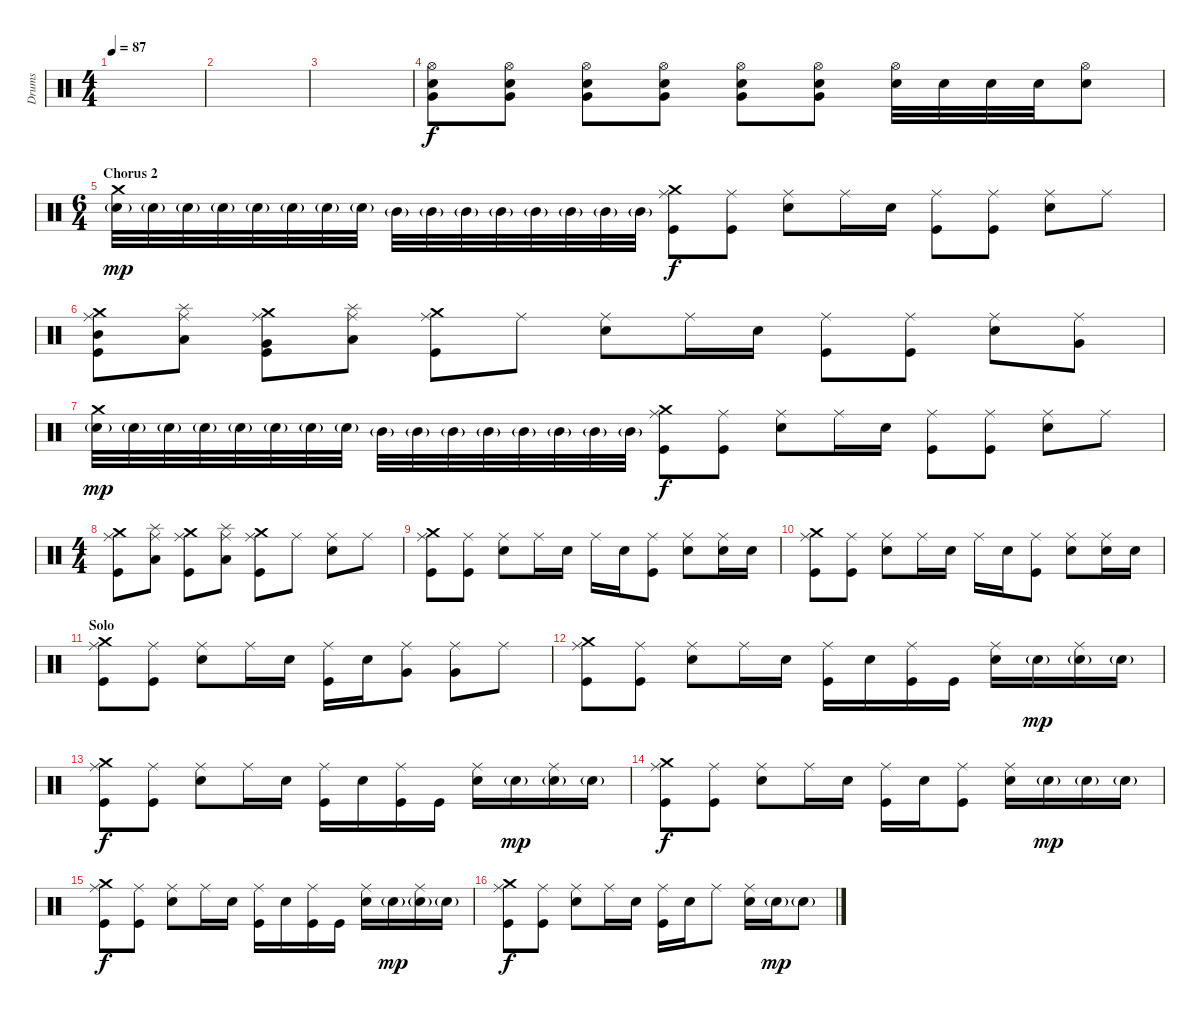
\track ("Drums" "Drums") {instrument percussion}
\staff {score}
\articulation defaults
\ts (4 4)
\tempo 87
\clef neutral
\ks c
|
|
|
("Hi-Hat (open)" "Snare (hit) 2" "Very Low Tom (hit)").8 ("Hi-Hat (open)" "Snare (hit) 2" "Very Low Tom (hit)").8 ("Hi-Hat (open)" "Snare (hit) 2" "Very Low Tom (hit)").8 ("Hi-Hat (open)" "Snare (hit) 2" "Very Low Tom (hit)").8 ("Hi-Hat (open)" "Snare (hit) 2" "Very Low Tom (hit)").8 ("Hi-Hat (open)" "Snare (hit) 2" "Very Low Tom (hit)").8 ("Hi-Hat (open)" "Snare (hit) 2").32 "Snare (hit) 2".32 "Snare (hit) 2".32 "Snare (hit) 2".32 ("Hi-Hat (open)" "Snare (hit) 2").8 |
\ts (6 4)
\section ("" "Chorus 2")
("Crash medium (hit)" "Snare (hit) 2"{g}).32{dy mp} "Snare (hit) 2"{g}.32 "Snare (hit) 2"{g}.32 "Snare (hit) 2"{g}.32 "Snare (hit) 2"{g}.32 "Snare (hit) 2"{g}.32 "Snare (hit) 2"{g}.32 "Snare (hit) 2"{g}.32 "Mid Tom (hit)"{g}.32 "Mid Tom (hit)"{g}.32 "Mid Tom (hit)"{g}.32 "Mid Tom (hit)"{g}.32 "Mid Tom (hit)"{g}.32 "Mid Tom (hit)"{g}.32 "Mid Tom (hit)"{g}.32 "Mid Tom (hit)"{g}.32 ("Ride (middle)" "Crash medium (hit)" "Kick (hit)").8{dy f} ("Ride (middle)" "Kick (hit)").8 ("Ride (middle)" "Snare (hit) 2").8 "Ride (middle)".16 "Snare (hit) 2".16 ("Ride (middle)" "Kick (hit)").8 ("Ride (middle)" "Kick (hit)").8 ("Ride (middle)" "Snare (hit) 2").8 "Ride (middle)".8 |
("Ride (middle)" "Crash medium (hit)" "Mid Tom (hit)" "Kick (hit)").8 ("Ride (middle)" "Splash (hit)" "Low Tom (hit)").8 ("Ride (middle)" "Crash medium (hit)" "Very Low Tom (hit)" "Kick (hit)").8 ("Ride (middle)" "Splash (hit)" "Low Floor Tom (hit)").8 ("Ride (middle)" "Crash medium (hit)" "Kick (hit)").8 "Ride (middle)".8 ("Ride (middle)" "Snare (hit) 2").8 "Ride (middle)".16 "Snare (hit) 2".16 ("Ride (middle)" "Kick (hit)").8 ("Ride (middle)" "Kick (hit)").8 ("Ride (middle)" "Snare (hit) 2").8 ("Ride (middle)" "Very Low Tom (hit)").8 |
("Crash medium (hit)" "Snare (hit) 2"{g}).32{dy mp} "Snare (hit) 2"{g}.32 "Snare (hit) 2"{g}.32 "Snare (hit) 2"{g}.32 "Snare (hit) 2"{g}.32 "Snare (hit) 2"{g}.32 "Snare (hit) 2"{g}.32 "Snare (hit) 2"{g}.32 "Mid Tom (hit)"{g}.32 "Mid Tom (hit)"{g}.32 "Mid Tom (hit)"{g}.32 "Mid Tom (hit)"{g}.32 "Mid Tom (hit)"{g}.32 "Mid Tom (hit)"{g}.32 "Mid Tom (hit)"{g}.32 "Mid Tom (hit)"{g}.32 ("Ride (middle)" "Crash medium (hit)" "Kick (hit)").8{dy f} ("Ride (middle)" "Kick (hit)").8 ("Ride (middle)" "Snare (hit) 2").8 "Ride (middle)".16 "Snare (hit) 2".16 ("Ride (middle)" "Kick (hit)").8 ("Ride (middle)" "Kick (hit)").8 ("Ride (middle)" "Snare (hit) 2").8 "Ride (middle)".8 |
\ts (4 4)
("Ride (middle)" "Crash medium (hit)" "Kick (hit)").8 ("Ride (middle)" "Splash (hit)" "Low Tom (hit)").8 ("Ride (middle)" "Crash medium (hit)" "Kick (hit)").8 ("Ride (middle)" "Splash (hit)" "Low Tom (hit)").8 ("Ride (middle)" "Crash medium (hit)" "Kick (hit)").8 "Ride (middle)".8 ("Ride (middle)" "Snare (hit) 2").8 "Ride (middle)".8 |
("Ride (middle)" "Crash medium (hit)" "Kick (hit)").8 ("Ride (middle)" "Kick (hit)").8 ("Ride (middle)" "Snare (hit) 2").8 "Ride (middle)".16 "Snare (hit) 2".16 "Ride (middle)".16 "Snare (hit) 2".16 ("Ride (middle)" "Kick (hit)").8 ("Ride (middle)" "Snare (hit) 2").8 ("Ride (middle)" "Snare (hit) 2").16 "Snare (hit) 2".16 |
("Ride (middle)" "Crash medium (hit)" "Kick (hit)").8 ("Ride (middle)" "Kick (hit)").8 ("Ride (middle)" "Snare (hit) 2").8 "Ride (middle)".16 "Snare (hit) 2".16 "Ride (middle)".16 "Snare (hit) 2".16 ("Ride (middle)" "Kick (hit)").8 ("Ride (middle)" "Snare (hit) 2").8 ("Ride (middle)" "Snare (hit) 2").16 "Snare (hit) 2".16 |
\section ("" "Solo")
("Ride (middle)" "Crash medium (hit)" "Kick (hit)").8 ("Ride (middle)" "Kick (hit)").8 ("Ride (middle)" "Snare (hit) 2").8 "Ride (middle)".16 "Snare (hit) 2".16 ("Ride (middle)" "Kick (hit)").16 "Snare (hit) 2".16 ("Ride (middle)" "Very Low Tom (hit)").8 ("Ride (middle)" "Very Low Tom (hit)").8 "Ride (middle)".8 |
("Ride (middle)" "Crash medium (hit)" "Kick (hit)").8 ("Ride (middle)" "Kick (hit)").8 ("Ride (middle)" "Snare (hit) 2").8 "Ride (middle)".16 "Snare (hit) 2".16 ("Ride (middle)" "Kick (hit)").16 "Snare (hit) 2".16 ("Ride (middle)" "Kick (hit)").16 "Kick (hit)".16 ("Ride (middle)" "Snare (hit) 2").16 "Snare (hit) 2"{g}.16{dy mp} ("Ride (middle)" "Snare (hit) 2"{g}).16 "Snare (hit) 2"{g}.16 |
("Ride (middle)" "Crash medium (hit)" "Kick (hit)").8{dy f} ("Ride (middle)" "Kick (hit)").8 ("Ride (middle)" "Snare (hit) 2").8 "Ride (middle)".16 "Snare (hit) 2".16 ("Ride (middle)" "Kick (hit)").16 "Snare (hit) 2".16 ("Ride (middle)" "Kick (hit)").16 "Kick (hit)".16 ("Ride (middle)" "Snare (hit) 2").16 "Snare (hit) 2"{g}.16{dy mp} ("Ride (middle)" "Snare (hit) 2"{g}).16 "Snare (hit) 2"{g}.16 |
("Ride (middle)" "Crash medium (hit)" "Kick (hit)").8{dy f} ("Ride (middle)" "Kick (hit)").8 ("Ride (middle)" "Snare (hit) 2").8 "Ride (middle)".16 "Snare (hit) 2".16 ("Ride (middle)" "Kick (hit)").16 "Snare (hit) 2".16 ("Ride (middle)" "Kick (hit)").8 ("Ride (middle)" "Snare (hit) 2").16 "Snare (hit) 2"{g}.16{dy mp} "Snare (hit) 2"{g}.16 "Snare (hit) 2"{g}.16 |
("Ride (middle)" "Crash medium (hit)" "Kick (hit)").8{dy f} ("Ride (middle)" "Kick (hit)").8 ("Ride (middle)" "Snare (hit) 2").8 "Ride (middle)".16 "Snare (hit) 2".16 ("Ride (middle)" "Kick (hit)").16 "Snare (hit) 2".16 ("Ride (middle)" "Kick (hit)").16 "Kick (hit)".16 ("Ride (middle)" "Snare (hit) 2").16 "Snare (hit) 2"{g}.16{dy mp} ("Ride (middle)" "Snare (hit) 2"{g}).16 "Snare (hit) 2"{g}.16 |
("Ride (middle)" "Crash medium (hit)" "Kick (hit)").8{dy f} ("Ride (middle)" "Kick (hit)").8 ("Ride (middle)" "Snare (hit) 2").8 "Ride (middle)".16 "Snare (hit) 2".16 ("Ride (middle)" "Kick (hit)").16 "Snare (hit) 2".16 "Ride (middle)".8 ("Ride (middle)" "Snare (hit) 2").16 "Snare (hit) 2"{g}.16{dy mp} "Snare (hit) 2"{g}.8
